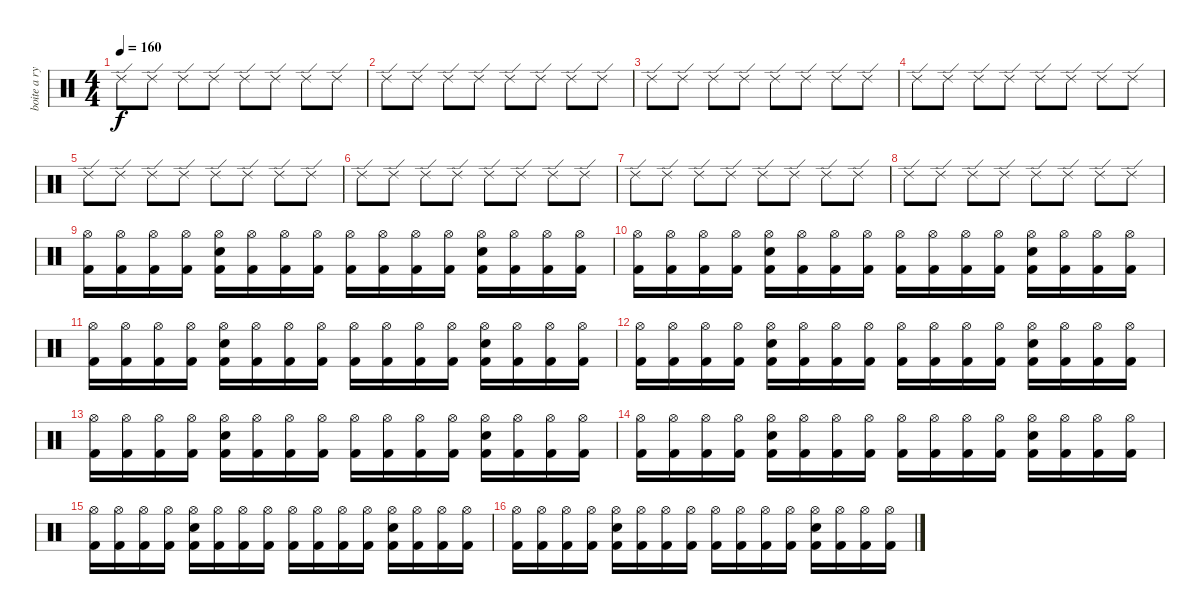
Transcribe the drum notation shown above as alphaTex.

\track ("boite a rythme" "boite a ry") {instrument percussion}
\staff {score}
\articulation defaults
\ts (4 4)
\tempo 160
\clef neutral
\ks c "Ride (edge) 2".8{dy f} "Ride (edge) 2".8 "Ride (edge) 2".8 "Ride (edge) 2".8 "Ride (edge) 2".8 "Ride (edge) 2".8 "Ride (edge) 2".8 "Ride (edge) 2".8
|
"Ride (edge) 2".8 "Ride (edge) 2".8 "Ride (edge) 2".8 "Ride (edge) 2".8 "Ride (edge) 2".8 "Ride (edge) 2".8 "Ride (edge) 2".8 "Ride (edge) 2".8 |
"Ride (edge) 2".8 "Ride (edge) 2".8 "Ride (edge) 2".8 "Ride (edge) 2".8 "Ride (edge) 2".8 "Ride (edge) 2".8 "Ride (edge) 2".8 "Ride (edge) 2".8 |
"Ride (edge) 2".8 "Ride (edge) 2".8 "Ride (edge) 2".8 "Ride (edge) 2".8 "Ride (edge) 2".8 "Ride (edge) 2".8 "Ride (edge) 2".8 "Ride (edge) 2".8 |
"Ride (edge) 2".8 "Ride (edge) 2".8 "Ride (edge) 2".8 "Ride (edge) 2".8 "Ride (edge) 2".8 "Ride (edge) 2".8 "Ride (edge) 2".8 "Ride (edge) 2".8 |
"Ride (edge) 2".8 "Ride (edge) 2".8 "Ride (edge) 2".8 "Ride (edge) 2".8 "Ride (edge) 2".8 "Ride (edge) 2".8 "Ride (edge) 2".8 "Ride (edge) 2".8 |
"Ride (edge) 2".8 "Ride (edge) 2".8 "Ride (edge) 2".8 "Ride (edge) 2".8 "Ride (edge) 2".8 "Ride (edge) 2".8 "Ride (edge) 2".8 "Ride (edge) 2".8 |
"Ride (edge) 2".8 "Ride (edge) 2".8 "Ride (edge) 2".8 "Ride (edge) 2".8 "Ride (edge) 2".8 "Ride (edge) 2".8 "Ride (edge) 2".8 "Ride (edge) 2".8 |
("Hi-Hat (open)" "Kick (hit) 2").16 ("Hi-Hat (open)" "Kick (hit) 2").16 ("Hi-Hat (open)" "Kick (hit) 2").16 ("Hi-Hat (open)" "Kick (hit) 2").16 ("Hi-Hat (open)" "Electric Snare (hit)" "Kick (hit) 2").16 ("Hi-Hat (open)" "Kick (hit) 2").16 ("Hi-Hat (open)" "Kick (hit) 2").16 ("Hi-Hat (open)" "Kick (hit) 2").16 ("Hi-Hat (open)" "Kick (hit) 2").16 ("Hi-Hat (open)" "Kick (hit) 2").16 ("Hi-Hat (open)" "Kick (hit) 2").16 ("Hi-Hat (open)" "Kick (hit) 2").16 ("Hi-Hat (open)" "Electric Snare (hit)" "Kick (hit) 2").16 ("Hi-Hat (open)" "Kick (hit) 2").16 ("Hi-Hat (open)" "Kick (hit) 2").16 ("Hi-Hat (open)" "Kick (hit) 2").16 |
("Hi-Hat (open)" "Kick (hit) 2").16 ("Hi-Hat (open)" "Kick (hit) 2").16 ("Hi-Hat (open)" "Kick (hit) 2").16 ("Hi-Hat (open)" "Kick (hit) 2").16 ("Hi-Hat (open)" "Electric Snare (hit)" "Kick (hit) 2").16 ("Hi-Hat (open)" "Kick (hit) 2").16 ("Hi-Hat (open)" "Kick (hit) 2").16 ("Hi-Hat (open)" "Kick (hit) 2").16 ("Hi-Hat (open)" "Kick (hit) 2").16 ("Hi-Hat (open)" "Kick (hit) 2").16 ("Hi-Hat (open)" "Kick (hit) 2").16 ("Hi-Hat (open)" "Kick (hit) 2").16 ("Hi-Hat (open)" "Electric Snare (hit)" "Kick (hit) 2").16 ("Hi-Hat (open)" "Kick (hit) 2").16 ("Hi-Hat (open)" "Kick (hit) 2").16 ("Hi-Hat (open)" "Kick (hit) 2").16 |
("Hi-Hat (open)" "Kick (hit) 2").16 ("Hi-Hat (open)" "Kick (hit) 2").16 ("Hi-Hat (open)" "Kick (hit) 2").16 ("Hi-Hat (open)" "Kick (hit) 2").16 ("Hi-Hat (open)" "Electric Snare (hit)" "Kick (hit) 2").16 ("Hi-Hat (open)" "Kick (hit) 2").16 ("Hi-Hat (open)" "Kick (hit) 2").16 ("Hi-Hat (open)" "Kick (hit) 2").16 ("Hi-Hat (open)" "Kick (hit) 2").16 ("Hi-Hat (open)" "Kick (hit) 2").16 ("Hi-Hat (open)" "Kick (hit) 2").16 ("Hi-Hat (open)" "Kick (hit) 2").16 ("Hi-Hat (open)" "Electric Snare (hit)" "Kick (hit) 2").16 ("Hi-Hat (open)" "Kick (hit) 2").16 ("Hi-Hat (open)" "Kick (hit) 2").16 ("Hi-Hat (open)" "Kick (hit) 2").16 |
("Hi-Hat (open)" "Kick (hit) 2").16 ("Hi-Hat (open)" "Kick (hit) 2").16 ("Hi-Hat (open)" "Kick (hit) 2").16 ("Hi-Hat (open)" "Kick (hit) 2").16 ("Hi-Hat (open)" "Electric Snare (hit)" "Kick (hit) 2").16 ("Hi-Hat (open)" "Kick (hit) 2").16 ("Hi-Hat (open)" "Kick (hit) 2").16 ("Hi-Hat (open)" "Kick (hit) 2").16 ("Hi-Hat (open)" "Kick (hit) 2").16 ("Hi-Hat (open)" "Kick (hit) 2").16 ("Hi-Hat (open)" "Kick (hit) 2").16 ("Hi-Hat (open)" "Kick (hit) 2").16 ("Hi-Hat (open)" "Electric Snare (hit)" "Kick (hit) 2").16 ("Hi-Hat (open)" "Kick (hit) 2").16 ("Hi-Hat (open)" "Kick (hit) 2").16 ("Hi-Hat (open)" "Kick (hit) 2").16 |
("Hi-Hat (open)" "Kick (hit) 2").16 ("Hi-Hat (open)" "Kick (hit) 2").16 ("Hi-Hat (open)" "Kick (hit) 2").16 ("Hi-Hat (open)" "Kick (hit) 2").16 ("Hi-Hat (open)" "Electric Snare (hit)" "Kick (hit) 2").16 ("Hi-Hat (open)" "Kick (hit) 2").16 ("Hi-Hat (open)" "Kick (hit) 2").16 ("Hi-Hat (open)" "Kick (hit) 2").16 ("Hi-Hat (open)" "Kick (hit) 2").16 ("Hi-Hat (open)" "Kick (hit) 2").16 ("Hi-Hat (open)" "Kick (hit) 2").16 ("Hi-Hat (open)" "Kick (hit) 2").16 ("Hi-Hat (open)" "Electric Snare (hit)" "Kick (hit) 2").16 ("Hi-Hat (open)" "Kick (hit) 2").16 ("Hi-Hat (open)" "Kick (hit) 2").16 ("Hi-Hat (open)" "Kick (hit) 2").16 |
("Hi-Hat (open)" "Kick (hit) 2").16 ("Hi-Hat (open)" "Kick (hit) 2").16 ("Hi-Hat (open)" "Kick (hit) 2").16 ("Hi-Hat (open)" "Kick (hit) 2").16 ("Hi-Hat (open)" "Electric Snare (hit)" "Kick (hit) 2").16 ("Hi-Hat (open)" "Kick (hit) 2").16 ("Hi-Hat (open)" "Kick (hit) 2").16 ("Hi-Hat (open)" "Kick (hit) 2").16 ("Hi-Hat (open)" "Kick (hit) 2").16 ("Hi-Hat (open)" "Kick (hit) 2").16 ("Hi-Hat (open)" "Kick (hit) 2").16 ("Hi-Hat (open)" "Kick (hit) 2").16 ("Hi-Hat (open)" "Electric Snare (hit)" "Kick (hit) 2").16 ("Hi-Hat (open)" "Kick (hit) 2").16 ("Hi-Hat (open)" "Kick (hit) 2").16 ("Hi-Hat (open)" "Kick (hit) 2").16 |
("Hi-Hat (open)" "Kick (hit) 2").16 ("Hi-Hat (open)" "Kick (hit) 2").16 ("Hi-Hat (open)" "Kick (hit) 2").16 ("Hi-Hat (open)" "Kick (hit) 2").16 ("Hi-Hat (open)" "Electric Snare (hit)" "Kick (hit) 2").16 ("Hi-Hat (open)" "Kick (hit) 2").16 ("Hi-Hat (open)" "Kick (hit) 2").16 ("Hi-Hat (open)" "Kick (hit) 2").16 ("Hi-Hat (open)" "Kick (hit) 2").16 ("Hi-Hat (open)" "Kick (hit) 2").16 ("Hi-Hat (open)" "Kick (hit) 2").16 ("Hi-Hat (open)" "Kick (hit) 2").16 ("Hi-Hat (open)" "Electric Snare (hit)" "Kick (hit) 2").16 ("Hi-Hat (open)" "Kick (hit) 2").16 ("Hi-Hat (open)" "Kick (hit) 2").16 ("Hi-Hat (open)" "Kick (hit) 2").16 |
("Hi-Hat (open)" "Kick (hit) 2").16 ("Hi-Hat (open)" "Kick (hit) 2").16 ("Hi-Hat (open)" "Kick (hit) 2").16 ("Hi-Hat (open)" "Kick (hit) 2").16 ("Hi-Hat (open)" "Electric Snare (hit)" "Kick (hit) 2").16 ("Hi-Hat (open)" "Kick (hit) 2").16 ("Hi-Hat (open)" "Kick (hit) 2").16 ("Hi-Hat (open)" "Kick (hit) 2").16 ("Hi-Hat (open)" "Kick (hit) 2").16 ("Hi-Hat (open)" "Kick (hit) 2").16 ("Hi-Hat (open)" "Kick (hit) 2").16 ("Hi-Hat (open)" "Kick (hit) 2").16 ("Hi-Hat (open)" "Electric Snare (hit)" "Kick (hit) 2").16 ("Hi-Hat (open)" "Kick (hit) 2").16 ("Hi-Hat (open)" "Kick (hit) 2").16 ("Hi-Hat (open)" "Kick (hit) 2").16
